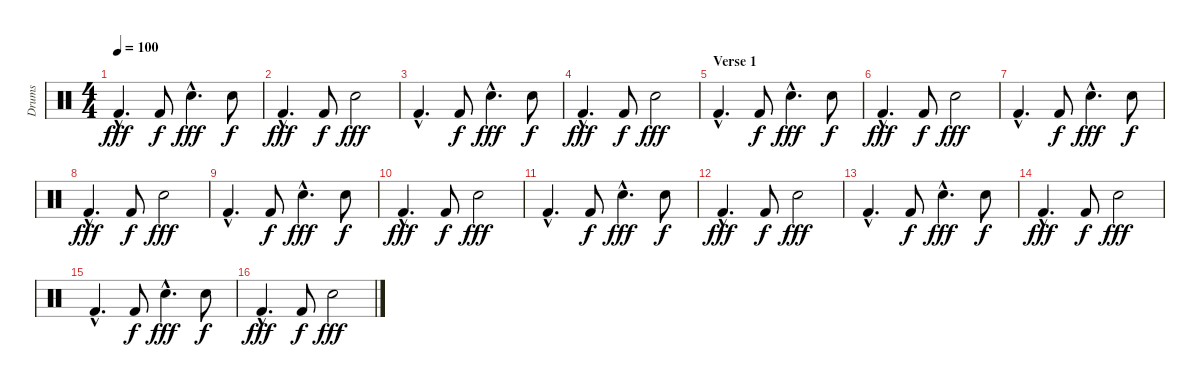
\track ("Drums" "Drums") {instrument percussion}
\staff {score}
\articulation defaults
\ts (4 4)
\tempo 100
\clef neutral
\ks c "Kick (hit) 2"{hac}.4{d dy fff} "Kick (hit) 2".8{dy f} "Electric Snare (hit)"{hac}.4{d dy fff} "Electric Snare (hit)".8{dy f}
|
"Kick (hit) 2"{hac}.4{d dy fff} "Kick (hit) 2".8{dy f} "Electric Snare (hit)".2{dy fff} |
"Kick (hit) 2"{hac}.4{d} "Kick (hit) 2".8{dy f} "Electric Snare (hit)"{hac}.4{d dy fff} "Electric Snare (hit)".8{dy f} |
"Kick (hit) 2"{hac}.4{d dy fff} "Kick (hit) 2".8{dy f} "Electric Snare (hit)".2{dy fff} |
\section ("" "Verse 1")
"Kick (hit) 2"{hac}.4{d} "Kick (hit) 2".8{dy f} "Electric Snare (hit)"{hac}.4{d dy fff} "Electric Snare (hit)".8{dy f} |
"Kick (hit) 2"{hac}.4{d dy fff} "Kick (hit) 2".8{dy f} "Electric Snare (hit)".2{dy fff} |
"Kick (hit) 2"{hac}.4{d} "Kick (hit) 2".8{dy f} "Electric Snare (hit)"{hac}.4{d dy fff} "Electric Snare (hit)".8{dy f} |
"Kick (hit) 2"{hac}.4{d dy fff} "Kick (hit) 2".8{dy f} "Electric Snare (hit)".2{dy fff} |
"Kick (hit) 2"{hac}.4{d} "Kick (hit) 2".8{dy f} "Electric Snare (hit)"{hac}.4{d dy fff} "Electric Snare (hit)".8{dy f} |
"Kick (hit) 2"{hac}.4{d dy fff} "Kick (hit) 2".8{dy f} "Electric Snare (hit)".2{dy fff} |
"Kick (hit) 2"{hac}.4{d} "Kick (hit) 2".8{dy f} "Electric Snare (hit)"{hac}.4{d dy fff} "Electric Snare (hit)".8{dy f} |
"Kick (hit) 2"{hac}.4{d dy fff} "Kick (hit) 2".8{dy f} "Electric Snare (hit)".2{dy fff} |
"Kick (hit) 2"{hac}.4{d} "Kick (hit) 2".8{dy f} "Electric Snare (hit)"{hac}.4{d dy fff} "Electric Snare (hit)".8{dy f} |
"Kick (hit) 2"{hac}.4{d dy fff} "Kick (hit) 2".8{dy f} "Electric Snare (hit)".2{dy fff} |
"Kick (hit) 2"{hac}.4{d} "Kick (hit) 2".8{dy f} "Electric Snare (hit)"{hac}.4{d dy fff} "Electric Snare (hit)".8{dy f} |
"Kick (hit) 2"{hac}.4{d dy fff} "Kick (hit) 2".8{dy f} "Electric Snare (hit)".2{dy fff}
